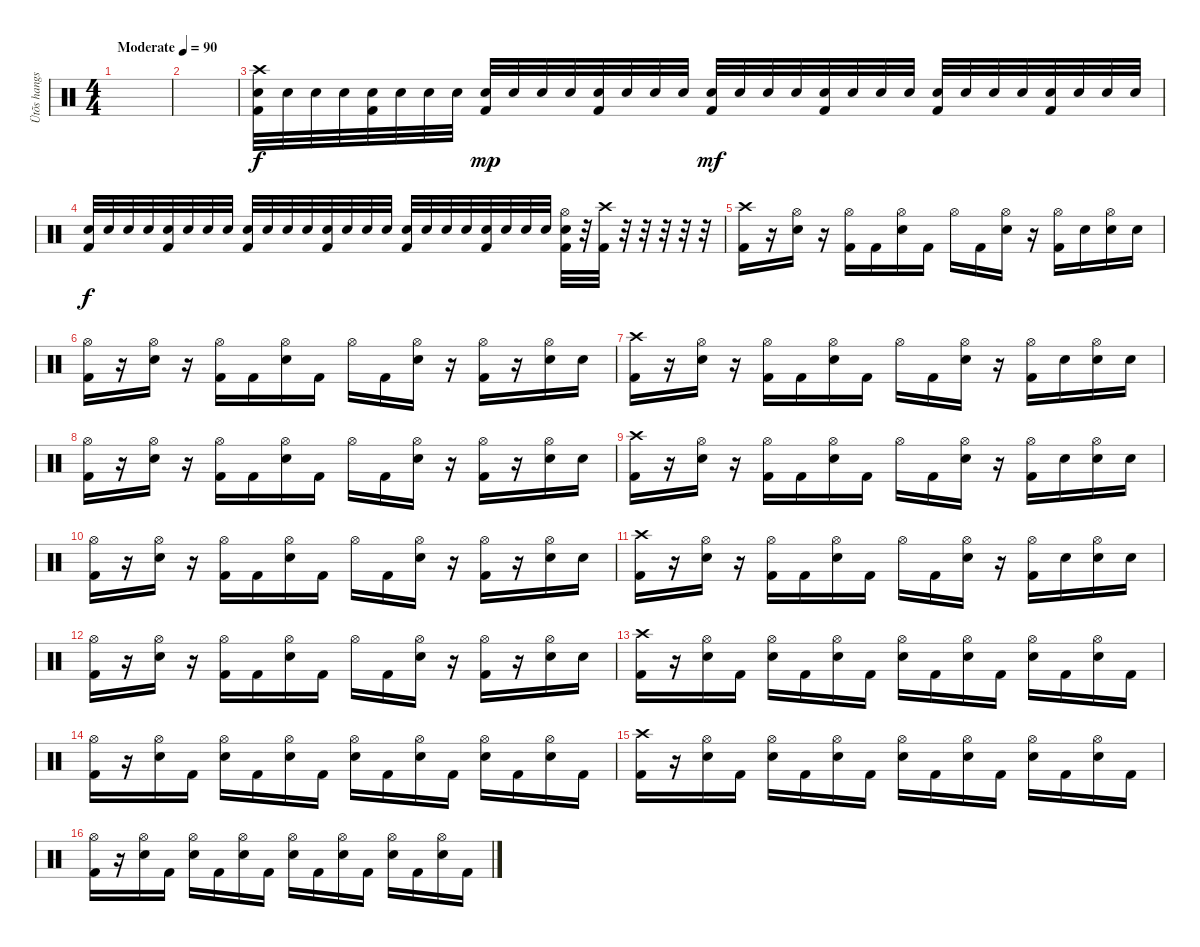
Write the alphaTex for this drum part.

\track ("Ütõs hangszer" "Ütõs hangs") {instrument percussion}
\staff {score}
\articulation defaults
\ts (4 4)
\tempo (90 "Moderate")
\clef neutral
\ks c
|
|
("Crash high (hit)" "Snare (hit) 2" "Kick (hit) 2").32 "Snare (hit) 2".32 "Snare (hit) 2".32 "Snare (hit) 2".32 ("Snare (hit) 2" "Kick (hit) 2").32 "Snare (hit) 2".32 "Snare (hit) 2".32 "Snare (hit) 2".32 ("Snare (hit) 2" "Kick (hit) 2").32{dy mp} "Snare (hit) 2".32 "Snare (hit) 2".32 "Snare (hit) 2".32 ("Snare (hit) 2" "Kick (hit) 2").32 "Snare (hit) 2".32 "Snare (hit) 2".32 "Snare (hit) 2".32 ("Snare (hit) 2" "Kick (hit) 2").32{dy mf} "Snare (hit) 2".32 "Snare (hit) 2".32 "Snare (hit) 2".32 ("Snare (hit) 2" "Kick (hit) 2").32 "Snare (hit) 2".32 "Snare (hit) 2".32 "Snare (hit) 2".32 ("Snare (hit) 2" "Kick (hit) 2").32 "Snare (hit) 2".32 "Snare (hit) 2".32 "Snare (hit) 2".32 ("Snare (hit) 2" "Kick (hit) 2").32 "Snare (hit) 2".32 "Snare (hit) 2".32 "Snare (hit) 2".32 |
("Snare (hit) 2" "Kick (hit) 2").32{dy f} "Snare (hit) 2".32 "Snare (hit) 2".32 "Snare (hit) 2".32 ("Snare (hit) 2" "Kick (hit) 2").32 "Snare (hit) 2".32 "Snare (hit) 2".32 "Snare (hit) 2".32 ("Snare (hit) 2" "Kick (hit) 2").32 "Snare (hit) 2".32 "Snare (hit) 2".32 "Snare (hit) 2".32 ("Snare (hit) 2" "Kick (hit) 2").32 "Snare (hit) 2".32 "Snare (hit) 2".32 "Snare (hit) 2".32 ("Snare (hit) 2" "Kick (hit) 2").32 "Snare (hit) 2".32 "Snare (hit) 2".32 "Snare (hit) 2".32 ("Snare (hit) 2" "Kick (hit) 2").32 "Snare (hit) 2".32 "Snare (hit) 2".32 "Snare (hit) 2".32 ("Hi-Hat (open)" "Snare (hit) 2" "Kick (hit) 2").32 r.32 ("Crash high (hit)" "Kick (hit) 2").32 r.32 r.32 r.32 r.32 r.32 |
("Crash high (hit)" "Kick (hit) 2").16 r.16 ("Hi-Hat (open)" "Snare (hit) 2").16 r.16 ("Hi-Hat (open)" "Kick (hit) 2").16 "Kick (hit) 2".16 ("Hi-Hat (open)" "Snare (hit) 2").16 "Kick (hit) 2".16 "Hi-Hat (open)".16 "Kick (hit) 2".16 ("Hi-Hat (open)" "Snare (hit) 2").16 r.16 ("Hi-Hat (open)" "Kick (hit) 2").16 "Snare (hit) 2".16 ("Hi-Hat (open)" "Snare (hit) 2").16 "Snare (hit) 2".16 |
("Hi-Hat (open)" "Kick (hit) 2").16 r.16 ("Hi-Hat (open)" "Snare (hit) 2").16 r.16 ("Hi-Hat (open)" "Kick (hit) 2").16 "Kick (hit) 2".16 ("Hi-Hat (open)" "Snare (hit) 2").16 "Kick (hit) 2".16 "Hi-Hat (open)".16 "Kick (hit) 2".16 ("Hi-Hat (open)" "Snare (hit) 2").16 r.16 ("Hi-Hat (open)" "Kick (hit) 2").16 r.16 ("Hi-Hat (open)" "Snare (hit) 2").16 "Snare (hit) 2".16 |
("Crash high (hit)" "Kick (hit) 2").16 r.16 ("Hi-Hat (open)" "Snare (hit) 2").16 r.16 ("Hi-Hat (open)" "Kick (hit) 2").16 "Kick (hit) 2".16 ("Hi-Hat (open)" "Snare (hit) 2").16 "Kick (hit) 2".16 "Hi-Hat (open)".16 "Kick (hit) 2".16 ("Hi-Hat (open)" "Snare (hit) 2").16 r.16 ("Hi-Hat (open)" "Kick (hit) 2").16 "Snare (hit) 2".16 ("Hi-Hat (open)" "Snare (hit) 2").16 "Snare (hit) 2".16 |
("Hi-Hat (open)" "Kick (hit) 2").16 r.16 ("Hi-Hat (open)" "Snare (hit) 2").16 r.16 ("Hi-Hat (open)" "Kick (hit) 2").16 "Kick (hit) 2".16 ("Hi-Hat (open)" "Snare (hit) 2").16 "Kick (hit) 2".16 "Hi-Hat (open)".16 "Kick (hit) 2".16 ("Hi-Hat (open)" "Snare (hit) 2").16 r.16 ("Hi-Hat (open)" "Kick (hit) 2").16 r.16 ("Hi-Hat (open)" "Snare (hit) 2").16 "Snare (hit) 2".16 |
("Crash high (hit)" "Kick (hit) 2").16 r.16 ("Hi-Hat (open)" "Snare (hit) 2").16 r.16 ("Hi-Hat (open)" "Kick (hit) 2").16 "Kick (hit) 2".16 ("Hi-Hat (open)" "Snare (hit) 2").16 "Kick (hit) 2".16 "Hi-Hat (open)".16 "Kick (hit) 2".16 ("Hi-Hat (open)" "Snare (hit) 2").16 r.16 ("Hi-Hat (open)" "Kick (hit) 2").16 "Snare (hit) 2".16 ("Hi-Hat (open)" "Snare (hit) 2").16 "Snare (hit) 2".16 |
("Hi-Hat (open)" "Kick (hit) 2").16 r.16 ("Hi-Hat (open)" "Snare (hit) 2").16 r.16 ("Hi-Hat (open)" "Kick (hit) 2").16 "Kick (hit) 2".16 ("Hi-Hat (open)" "Snare (hit) 2").16 "Kick (hit) 2".16 "Hi-Hat (open)".16 "Kick (hit) 2".16 ("Hi-Hat (open)" "Snare (hit) 2").16 r.16 ("Hi-Hat (open)" "Kick (hit) 2").16 r.16 ("Hi-Hat (open)" "Snare (hit) 2").16 "Snare (hit) 2".16 |
("Crash high (hit)" "Kick (hit) 2").16 r.16 ("Hi-Hat (open)" "Snare (hit) 2").16 r.16 ("Hi-Hat (open)" "Kick (hit) 2").16 "Kick (hit) 2".16 ("Hi-Hat (open)" "Snare (hit) 2").16 "Kick (hit) 2".16 "Hi-Hat (open)".16 "Kick (hit) 2".16 ("Hi-Hat (open)" "Snare (hit) 2").16 r.16 ("Hi-Hat (open)" "Kick (hit) 2").16 "Snare (hit) 2".16 ("Hi-Hat (open)" "Snare (hit) 2").16 "Snare (hit) 2".16 |
("Hi-Hat (open)" "Kick (hit) 2").16 r.16 ("Hi-Hat (open)" "Snare (hit) 2").16 r.16 ("Hi-Hat (open)" "Kick (hit) 2").16 "Kick (hit) 2".16 ("Hi-Hat (open)" "Snare (hit) 2").16 "Kick (hit) 2".16 "Hi-Hat (open)".16 "Kick (hit) 2".16 ("Hi-Hat (open)" "Snare (hit) 2").16 r.16 ("Hi-Hat (open)" "Kick (hit) 2").16 r.16 ("Hi-Hat (open)" "Snare (hit) 2").16 "Snare (hit) 2".16 |
("Crash high (hit)" "Kick (hit) 2").16 r.16 ("Hi-Hat (open)" "Snare (hit) 2").16 "Kick (hit) 2".16 ("Hi-Hat (open)" "Snare (hit) 2").16 "Kick (hit) 2".16 ("Hi-Hat (open)" "Snare (hit) 2").16 "Kick (hit) 2".16 ("Hi-Hat (open)" "Snare (hit) 2").16 "Kick (hit) 2".16 ("Hi-Hat (open)" "Snare (hit) 2").16 "Kick (hit) 2".16 ("Hi-Hat (open)" "Snare (hit) 2").16 "Kick (hit) 2".16 ("Hi-Hat (open)" "Snare (hit) 2").16 "Kick (hit) 2".16 |
("Hi-Hat (open)" "Kick (hit) 2").16 r.16 ("Hi-Hat (open)" "Snare (hit) 2").16 "Kick (hit) 2".16 ("Hi-Hat (open)" "Snare (hit) 2").16 "Kick (hit) 2".16 ("Hi-Hat (open)" "Snare (hit) 2").16 "Kick (hit) 2".16 ("Hi-Hat (open)" "Snare (hit) 2").16 "Kick (hit) 2".16 ("Hi-Hat (open)" "Snare (hit) 2").16 "Kick (hit) 2".16 ("Hi-Hat (open)" "Snare (hit) 2").16 "Kick (hit) 2".16 ("Hi-Hat (open)" "Snare (hit) 2").16 "Kick (hit) 2".16 |
("Crash high (hit)" "Kick (hit) 2").16 r.16 ("Hi-Hat (open)" "Snare (hit) 2").16 "Kick (hit) 2".16 ("Hi-Hat (open)" "Snare (hit) 2").16 "Kick (hit) 2".16 ("Hi-Hat (open)" "Snare (hit) 2").16 "Kick (hit) 2".16 ("Hi-Hat (open)" "Snare (hit) 2").16 "Kick (hit) 2".16 ("Hi-Hat (open)" "Snare (hit) 2").16 "Kick (hit) 2".16 ("Hi-Hat (open)" "Snare (hit) 2").16 "Kick (hit) 2".16 ("Hi-Hat (open)" "Snare (hit) 2").16 "Kick (hit) 2".16 |
("Hi-Hat (open)" "Kick (hit) 2").16 r.16 ("Hi-Hat (open)" "Snare (hit) 2").16 "Kick (hit) 2".16 ("Hi-Hat (open)" "Snare (hit) 2").16 "Kick (hit) 2".16 ("Hi-Hat (open)" "Snare (hit) 2").16 "Kick (hit) 2".16 ("Hi-Hat (open)" "Snare (hit) 2").16 "Kick (hit) 2".16 ("Hi-Hat (open)" "Snare (hit) 2").16 "Kick (hit) 2".16 ("Hi-Hat (open)" "Snare (hit) 2").16 "Kick (hit) 2".16 ("Hi-Hat (open)" "Snare (hit) 2").16 "Kick (hit) 2".16
